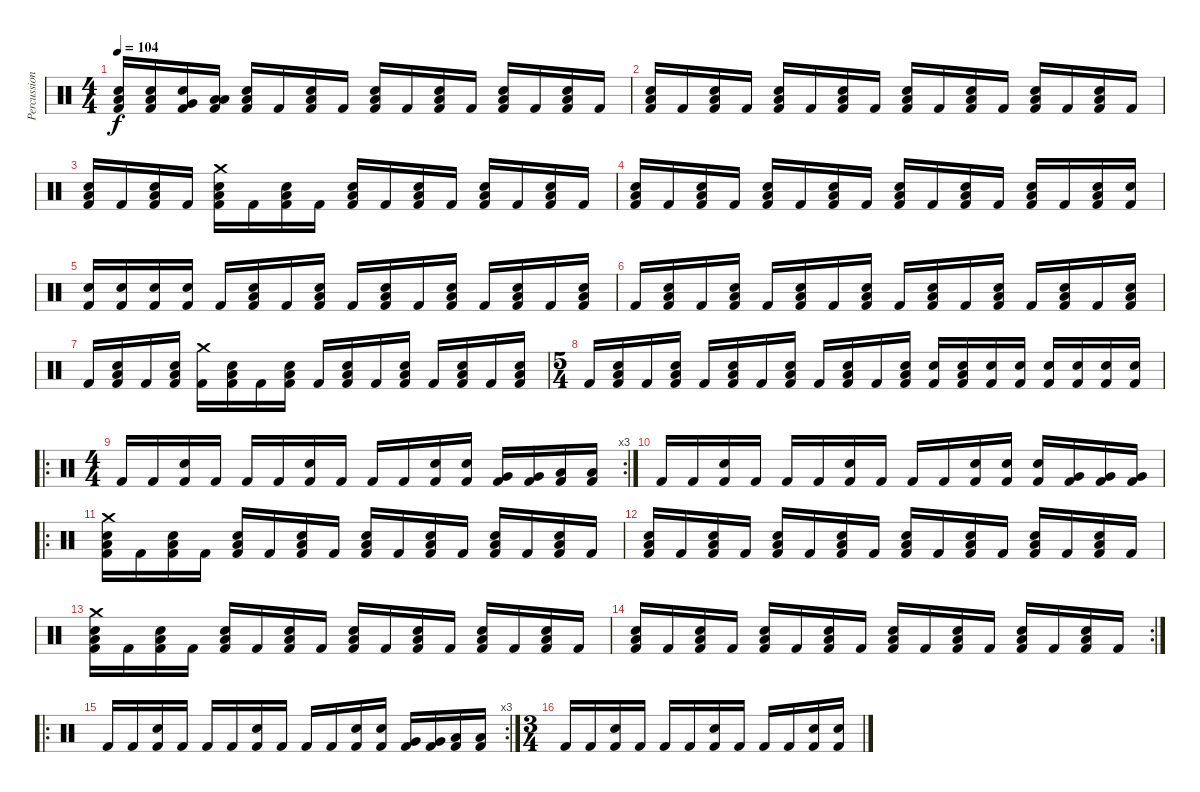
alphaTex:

\track ("Percussion" "Percussion") {instrument percussion}
\staff {score}
\articulation defaults
\ts (4 4)
\tempo 104
\clef neutral
\ks c
("Low Tom (hit)" "Snare (hit) 2" "Kick (hit) 2").16{dy f} ("Low Tom (hit)" "Snare (hit) 2" "Kick (hit) 2").16 ("Very Low Tom (hit)" "Snare (hit) 2" "Kick (hit) 2").16 ("Low Floor Tom (hit)" "Low Floor Tom (hit)" "Kick (hit) 2").16 ("Low Floor Tom (hit)" "Snare (hit) 2" "Kick (hit) 2").16 "Kick (hit) 2".16 ("Low Floor Tom (hit)" "Snare (hit) 2" "Kick (hit) 2").16 "Kick (hit) 2".16 ("Low Floor Tom (hit)" "Snare (hit) 2" "Kick (hit) 2").16 "Kick (hit) 2".16 ("Low Floor Tom (hit)" "Snare (hit) 2" "Kick (hit) 2").16 "Kick (hit) 2".16 ("Low Floor Tom (hit)" "Snare (hit) 2" "Kick (hit) 2").16 "Kick (hit) 2".16 ("Low Floor Tom (hit)" "Snare (hit) 2" "Kick (hit) 2").16 "Kick (hit) 2".16 |
("Low Floor Tom (hit)" "Snare (hit) 2" "Kick (hit) 2").16 "Kick (hit) 2".16 ("Low Floor Tom (hit)" "Snare (hit) 2" "Kick (hit) 2").16 "Kick (hit) 2".16 ("Low Floor Tom (hit)" "Snare (hit) 2" "Kick (hit) 2").16 "Kick (hit) 2".16 ("Low Floor Tom (hit)" "Snare (hit) 2" "Kick (hit) 2").16 "Kick (hit) 2".16 ("Low Floor Tom (hit)" "Snare (hit) 2" "Kick (hit) 2").16 "Kick (hit) 2".16 ("Low Floor Tom (hit)" "Snare (hit) 2" "Kick (hit) 2").16 "Kick (hit) 2".16 ("Low Floor Tom (hit)" "Snare (hit) 2" "Kick (hit) 2").16 "Kick (hit) 2".16 ("Low Floor Tom (hit)" "Snare (hit) 2" "Kick (hit) 2").16 "Kick (hit) 2".16 |
("Low Floor Tom (hit)" "Snare (hit) 2" "Kick (hit) 2").16 "Kick (hit) 2".16 ("Low Floor Tom (hit)" "Snare (hit) 2" "Kick (hit) 2").16 "Kick (hit) 2".16 ("Crash medium (hit)" "Low Floor Tom (hit)" "Snare (hit) 2" "Kick (hit) 2").16 "Kick (hit) 2".16 ("Low Floor Tom (hit)" "Snare (hit) 2" "Kick (hit) 2").16 "Kick (hit) 2".16 ("Low Floor Tom (hit)" "Snare (hit) 2" "Kick (hit) 2").16 "Kick (hit) 2".16 ("Low Floor Tom (hit)" "Snare (hit) 2" "Kick (hit) 2").16 "Kick (hit) 2".16 ("Low Floor Tom (hit)" "Snare (hit) 2" "Kick (hit) 2").16 "Kick (hit) 2".16 ("Low Floor Tom (hit)" "Snare (hit) 2" "Kick (hit) 2").16 "Kick (hit) 2".16 |
("Low Floor Tom (hit)" "Snare (hit) 2" "Kick (hit) 2").16 "Kick (hit) 2".16 ("Low Floor Tom (hit)" "Snare (hit) 2" "Kick (hit) 2").16 "Kick (hit) 2".16 ("Low Floor Tom (hit)" "Snare (hit) 2" "Kick (hit) 2").16 "Kick (hit) 2".16 ("Low Floor Tom (hit)" "Snare (hit) 2" "Kick (hit) 2").16 "Kick (hit) 2".16 ("Low Floor Tom (hit)" "Snare (hit) 2" "Kick (hit) 2").16 "Kick (hit) 2".16 ("Low Floor Tom (hit)" "Snare (hit) 2" "Kick (hit) 2").16 "Kick (hit) 2".16 ("Low Floor Tom (hit)" "Snare (hit) 2" "Kick (hit) 2").16 "Kick (hit) 2".16 ("Low Floor Tom (hit)" "Snare (hit) 2" "Kick (hit) 2").16 ("Snare (hit) 2" "Kick (hit) 2").16 |
("Snare (hit) 2" "Kick (hit) 2").16 ("Snare (hit) 2" "Kick (hit) 2").16 ("Snare (hit) 2" "Kick (hit) 2").16 ("Snare (hit) 2" "Kick (hit) 2").16 "Kick (hit) 2".16 ("Low Floor Tom (hit)" "Snare (hit) 2" "Kick (hit) 2").16 "Kick (hit) 2".16 ("Low Floor Tom (hit)" "Snare (hit) 2" "Kick (hit) 2").16 "Kick (hit) 2".16 ("Low Floor Tom (hit)" "Snare (hit) 2" "Kick (hit) 2").16 "Kick (hit) 2".16 ("Low Floor Tom (hit)" "Snare (hit) 2" "Kick (hit) 2").16 "Kick (hit) 2".16 ("Low Floor Tom (hit)" "Snare (hit) 2" "Kick (hit) 2").16 "Kick (hit) 2".16 ("Low Floor Tom (hit)" "Snare (hit) 2" "Kick (hit) 2").16 |
"Kick (hit) 2".16 ("Low Floor Tom (hit)" "Snare (hit) 2" "Kick (hit) 2").16 "Kick (hit) 2".16 ("Low Floor Tom (hit)" "Snare (hit) 2" "Kick (hit) 2").16 "Kick (hit) 2".16 ("Low Floor Tom (hit)" "Snare (hit) 2" "Kick (hit) 2").16 "Kick (hit) 2".16 ("Low Floor Tom (hit)" "Snare (hit) 2" "Kick (hit) 2").16 "Kick (hit) 2".16 ("Low Floor Tom (hit)" "Snare (hit) 2" "Kick (hit) 2").16 "Kick (hit) 2".16 ("Low Floor Tom (hit)" "Snare (hit) 2" "Kick (hit) 2").16 "Kick (hit) 2".16 ("Low Floor Tom (hit)" "Snare (hit) 2" "Kick (hit) 2").16 "Kick (hit) 2".16 ("Low Floor Tom (hit)" "Snare (hit) 2" "Kick (hit) 2").16 |
"Kick (hit) 2".16 ("Low Floor Tom (hit)" "Snare (hit) 2" "Kick (hit) 2").16 "Kick (hit) 2".16 ("Low Floor Tom (hit)" "Snare (hit) 2" "Kick (hit) 2").16 ("Crash medium (hit)" "Kick (hit) 2").16 ("Low Floor Tom (hit)" "Snare (hit) 2" "Kick (hit) 2").16 "Kick (hit) 2".16 ("Low Floor Tom (hit)" "Snare (hit) 2" "Kick (hit) 2").16 "Kick (hit) 2".16 ("Low Floor Tom (hit)" "Snare (hit) 2" "Kick (hit) 2").16 "Kick (hit) 2".16 ("Low Floor Tom (hit)" "Snare (hit) 2" "Kick (hit) 2").16 "Kick (hit) 2".16 ("Low Floor Tom (hit)" "Snare (hit) 2" "Kick (hit) 2").16 "Kick (hit) 2".16 ("Low Floor Tom (hit)" "Snare (hit) 2" "Kick (hit) 2").16 |
\ts (5 4)
"Kick (hit) 2".16 ("Low Floor Tom (hit)" "Snare (hit) 2" "Kick (hit) 2").16 "Kick (hit) 2".16 ("Low Floor Tom (hit)" "Snare (hit) 2" "Kick (hit) 2").16 "Kick (hit) 2".16 ("Low Floor Tom (hit)" "Snare (hit) 2" "Kick (hit) 2").16 "Kick (hit) 2".16 ("Low Floor Tom (hit)" "Snare (hit) 2" "Kick (hit) 2").16 "Kick (hit) 2".16 ("Low Floor Tom (hit)" "Snare (hit) 2" "Kick (hit) 2").16 "Kick (hit) 2".16 ("Low Floor Tom (hit)" "Snare (hit) 2" "Kick (hit) 2").16 ("Snare (hit) 2" "Kick (hit) 2").16 ("Low Floor Tom (hit)" "Snare (hit) 2" "Kick (hit) 2").16 ("Snare (hit) 2" "Kick (hit) 2").16 ("Snare (hit) 2" "Kick (hit) 2").16 ("Snare (hit) 2" "Kick (hit) 2").16 ("Snare (hit) 2" "Kick (hit) 2").16 ("Snare (hit) 2" "Kick (hit) 2").16 ("Snare (hit) 2" "Kick (hit) 2").16 |
\ro
\rc 3
\ts (4 4)
"Kick (hit) 2".16 "Kick (hit) 2".16 ("Snare (hit) 2" "Kick (hit) 2").16 "Kick (hit) 2".16 "Kick (hit) 2".16 "Kick (hit) 2".16 ("Snare (hit) 2" "Kick (hit) 2").16 "Kick (hit) 2".16 "Kick (hit) 2".16 "Kick (hit) 2".16 ("Snare (hit) 2" "Kick (hit) 2").16 ("Snare (hit) 2" "Kick (hit) 2").16 ("Very Low Tom (hit)" "Kick (hit) 2").16 ("Very Low Tom (hit)" "Kick (hit) 2").16 ("Low Floor Tom (hit)" "Kick (hit) 2").16 ("Low Floor Tom (hit)" "Kick (hit) 2").16 |
"Kick (hit) 2".16 "Kick (hit) 2".16 ("Snare (hit) 2" "Kick (hit) 2").16 "Kick (hit) 2".16 "Kick (hit) 2".16 "Kick (hit) 2".16 ("Snare (hit) 2" "Kick (hit) 2").16 "Kick (hit) 2".16 "Kick (hit) 2".16 "Kick (hit) 2".16 ("Snare (hit) 2" "Kick (hit) 2").16 ("Snare (hit) 2" "Kick (hit) 2").16 ("Snare (hit) 2" "Kick (hit) 2").16 ("Very Low Tom (hit)" "Kick (hit) 2").16 ("Very Low Tom (hit)" "Kick (hit) 2").16 ("Very Low Tom (hit)" "Kick (hit) 2").16 |
\ro
("Crash medium (hit)" "Low Floor Tom (hit)" "Snare (hit) 2" "Kick (hit) 2").16 "Kick (hit) 2".16 ("Low Floor Tom (hit)" "Snare (hit) 2" "Kick (hit) 2").16 "Kick (hit) 2".16 ("Low Floor Tom (hit)" "Snare (hit) 2" "Kick (hit) 2").16 "Kick (hit) 2".16 ("Low Floor Tom (hit)" "Snare (hit) 2" "Kick (hit) 2").16 "Kick (hit) 2".16 ("Low Floor Tom (hit)" "Snare (hit) 2" "Kick (hit) 2").16 "Kick (hit) 2".16 ("Low Floor Tom (hit)" "Snare (hit) 2" "Kick (hit) 2").16 "Kick (hit) 2".16 ("Low Floor Tom (hit)" "Snare (hit) 2" "Kick (hit) 2").16 "Kick (hit) 2".16 ("Low Floor Tom (hit)" "Snare (hit) 2" "Kick (hit) 2").16 "Kick (hit) 2".16 |
("Low Floor Tom (hit)" "Snare (hit) 2" "Kick (hit) 2").16 "Kick (hit) 2".16 ("Low Floor Tom (hit)" "Snare (hit) 2" "Kick (hit) 2").16 "Kick (hit) 2".16 ("Low Floor Tom (hit)" "Snare (hit) 2" "Kick (hit) 2").16 "Kick (hit) 2".16 ("Low Floor Tom (hit)" "Snare (hit) 2" "Kick (hit) 2").16 "Kick (hit) 2".16 ("Low Floor Tom (hit)" "Snare (hit) 2" "Kick (hit) 2").16 "Kick (hit) 2".16 ("Low Floor Tom (hit)" "Snare (hit) 2" "Kick (hit) 2").16 "Kick (hit) 2".16 ("Low Floor Tom (hit)" "Snare (hit) 2" "Kick (hit) 2").16 "Kick (hit) 2".16 ("Low Floor Tom (hit)" "Snare (hit) 2" "Kick (hit) 2").16 "Kick (hit) 2".16 |
("Crash medium (hit)" "Low Floor Tom (hit)" "Snare (hit) 2" "Kick (hit) 2").16 "Kick (hit) 2".16 ("Low Floor Tom (hit)" "Snare (hit) 2" "Kick (hit) 2").16 "Kick (hit) 2".16 ("Low Floor Tom (hit)" "Snare (hit) 2" "Kick (hit) 2").16 "Kick (hit) 2".16 ("Low Floor Tom (hit)" "Snare (hit) 2" "Kick (hit) 2").16 "Kick (hit) 2".16 ("Low Floor Tom (hit)" "Snare (hit) 2" "Kick (hit) 2").16 "Kick (hit) 2".16 ("Low Floor Tom (hit)" "Snare (hit) 2" "Kick (hit) 2").16 "Kick (hit) 2".16 ("Low Floor Tom (hit)" "Snare (hit) 2" "Kick (hit) 2").16 "Kick (hit) 2".16 ("Low Floor Tom (hit)" "Snare (hit) 2" "Kick (hit) 2").16 "Kick (hit) 2".16 |
\rc 2
("Low Floor Tom (hit)" "Snare (hit) 2" "Kick (hit) 2").16 "Kick (hit) 2".16 ("Low Floor Tom (hit)" "Snare (hit) 2" "Kick (hit) 2").16 "Kick (hit) 2".16 ("Low Floor Tom (hit)" "Snare (hit) 2" "Kick (hit) 2").16 "Kick (hit) 2".16 ("Low Floor Tom (hit)" "Snare (hit) 2" "Kick (hit) 2").16 "Kick (hit) 2".16 ("Low Floor Tom (hit)" "Snare (hit) 2" "Kick (hit) 2").16 "Kick (hit) 2".16 ("Low Floor Tom (hit)" "Snare (hit) 2" "Kick (hit) 2").16 "Kick (hit) 2".16 ("Low Floor Tom (hit)" "Snare (hit) 2" "Kick (hit) 2").16 "Kick (hit) 2".16 ("Low Floor Tom (hit)" "Snare (hit) 2" "Kick (hit) 2").16 "Kick (hit) 2".16 |
\ro
\rc 3 "Kick (hit) 2".16 "Kick (hit) 2".16
("Snare (hit) 2" "Kick (hit) 2").16 "Kick (hit) 2".16 "Kick (hit) 2".16 "Kick (hit) 2".16 ("Snare (hit) 2" "Kick (hit) 2").16 "Kick (hit) 2".16 "Kick (hit) 2".16 "Kick (hit) 2".16 ("Snare (hit) 2" "Kick (hit) 2").16 ("Snare (hit) 2" "Kick (hit) 2").16 ("Very Low Tom (hit)" "Kick (hit) 2").16 ("Very Low Tom (hit)" "Kick (hit) 2").16 ("Low Floor Tom (hit)" "Kick (hit) 2").16 ("Low Floor Tom (hit)" "Kick (hit) 2").16 |
\ts (3 4)
"Kick (hit) 2".16 "Kick (hit) 2".16 ("Snare (hit) 2" "Kick (hit) 2").16 "Kick (hit) 2".16 "Kick (hit) 2".16 "Kick (hit) 2".16 ("Snare (hit) 2" "Kick (hit) 2").16 "Kick (hit) 2".16 "Kick (hit) 2".16 "Kick (hit) 2".16 ("Snare (hit) 2" "Kick (hit) 2").16 ("Snare (hit) 2" "Kick (hit) 2").16
